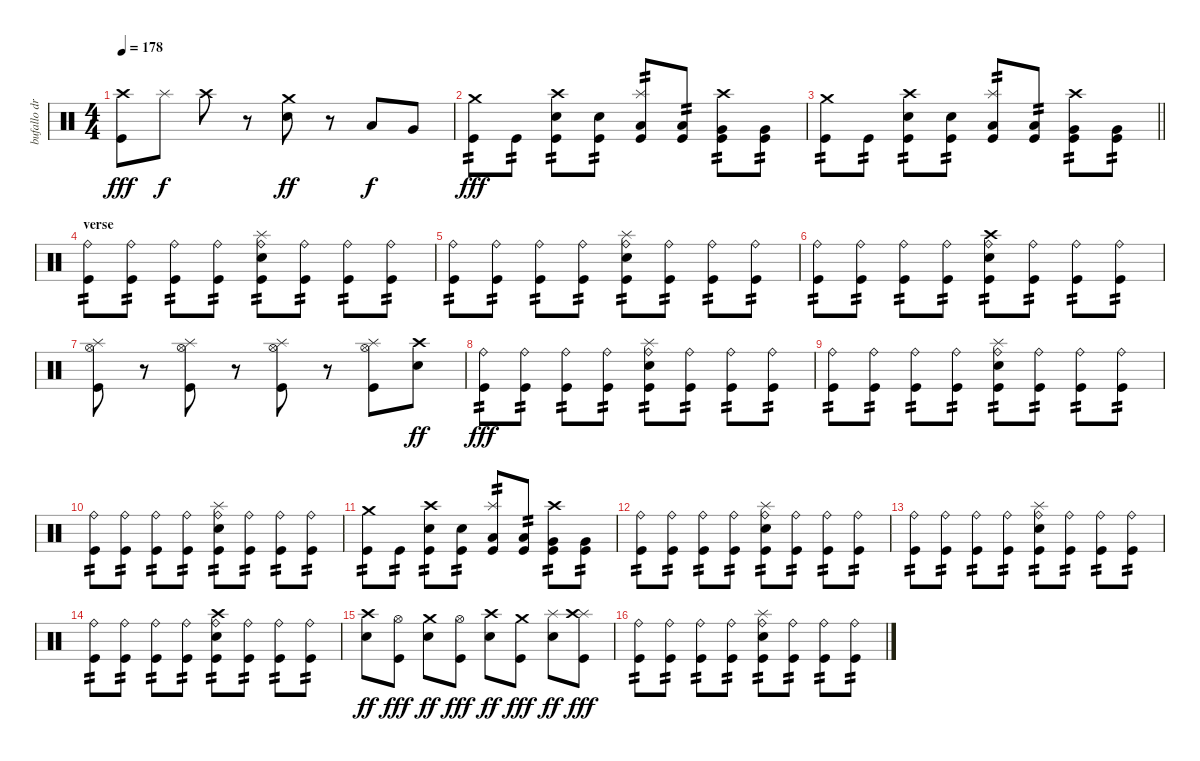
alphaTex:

\track ("bufallo drums" "bufallo dr") {instrument percussion}
\staff {score}
\articulation defaults
\ts (4 4)
\tempo 178
\clef neutral
\ks c
("Crash high (hit)" "Kick (hit)").8{dy fff} "Splash (hit)".8{dy f} "Crash high (hit)".8 r.8 ("Crash medium (hit)" "Electric Snare (hit)").8{dy ff} r.8 "Low Tom (hit)".8{dy f} "Very Low Tom (hit)".8 |
("Crash medium (hit)" "Kick (hit)").8{tp 2 dy fff} "Kick (hit)".8{tp 2} ("Crash high (hit)" "Electric Snare (hit)" "Kick (hit)").8{tp 2} ("Electric Snare (hit)" "Kick (hit)").8{tp 2} ("Splash (hit)" "Low Tom (hit)" "Kick (hit)").8{tp 2} ("Low Tom (hit)" "Kick (hit)").8{tp 2} ("Crash high (hit)" "Very Low Tom (hit)" "Kick (hit)").8{tp 2} ("Very Low Tom (hit)" "Kick (hit)").8{tp 2} |
\barLineRight lightlight
("Crash medium (hit)" "Kick (hit)").8{tp 2} "Kick (hit)".8{tp 2} ("Crash high (hit)" "Electric Snare (hit)" "Kick (hit)").8{tp 2} ("Electric Snare (hit)" "Kick (hit)").8{tp 2} ("Splash (hit)" "Low Tom (hit)" "Kick (hit)").8{tp 2} ("Low Tom (hit)" "Kick (hit)").8{tp 2} ("Crash high (hit)" "Very Low Tom (hit)" "Kick (hit)").8{tp 2} ("Very Low Tom (hit)" "Kick (hit)").8{tp 2} |
\section ("" "verse")
("Ride (bell)" "Kick (hit)").8{tp 2} ("Ride (bell)" "Kick (hit)").8{tp 2} ("Ride (bell)" "Kick (hit)").8{tp 2} ("Ride (bell)" "Kick (hit)").8{tp 2} ("Ride (bell)" "Splash (hit)" "Electric Snare (hit)" "Kick (hit)").8{tp 2} ("Ride (bell)" "Kick (hit)").8{tp 2} ("Ride (bell)" "Kick (hit)").8{tp 2} ("Ride (bell)" "Kick (hit)").8{tp 2} |
("Ride (bell)" "Kick (hit)").8{tp 2} ("Ride (bell)" "Kick (hit)").8{tp 2} ("Ride (bell)" "Kick (hit)").8{tp 2} ("Ride (bell)" "Kick (hit)").8{tp 2} ("Ride (bell)" "Splash (hit)" "Electric Snare (hit)" "Kick (hit)").8{tp 2} ("Ride (bell)" "Kick (hit)").8{tp 2} ("Ride (bell)" "Kick (hit)").8{tp 2} ("Ride (bell)" "Kick (hit)").8{tp 2} |
("Ride (bell)" "Kick (hit)").8{tp 2} ("Ride (bell)" "Kick (hit)").8{tp 2} ("Ride (bell)" "Kick (hit)").8{tp 2} ("Ride (bell)" "Kick (hit)").8{tp 2} ("Ride (bell)" "Crash high (hit)" "Electric Snare (hit)" "Kick (hit)").8{tp 2} ("Ride (bell)" "Kick (hit)").8{tp 2} ("Ride (bell)" "Kick (hit)").8{tp 2} ("Ride (bell)" "Kick (hit)").8{tp 2} |
("Splash (hit)" "Hi-Hat (open)" "Kick (hit)").8 r.8 ("Splash (hit)" "Hi-Hat (open)" "Kick (hit)").8 r.8 ("Splash (hit)" "Hi-Hat (open)" "Kick (hit)").8 r.8 ("Splash (hit)" "Hi-Hat (open)" "Kick (hit)").8 ("Crash high (hit)" "Electric Snare (hit)").8{dy ff} |
("Ride (bell)" "Kick (hit)").8{tp 2 dy fff} ("Ride (bell)" "Kick (hit)").8{tp 2} ("Ride (bell)" "Kick (hit)").8{tp 2} ("Ride (bell)" "Kick (hit)").8{tp 2} ("Ride (bell)" "Splash (hit)" "Electric Snare (hit)" "Kick (hit)").8{tp 2} ("Ride (bell)" "Kick (hit)").8{tp 2} ("Ride (bell)" "Kick (hit)").8{tp 2} ("Ride (bell)" "Kick (hit)").8{tp 2} |
("Ride (bell)" "Kick (hit)").8{tp 2} ("Ride (bell)" "Kick (hit)").8{tp 2} ("Ride (bell)" "Kick (hit)").8{tp 2} ("Ride (bell)" "Kick (hit)").8{tp 2} ("Ride (bell)" "Splash (hit)" "Electric Snare (hit)" "Kick (hit)").8{tp 2} ("Ride (bell)" "Kick (hit)").8{tp 2} ("Ride (bell)" "Kick (hit)").8{tp 2} ("Ride (bell)" "Kick (hit)").8{tp 2} |
("Ride (bell)" "Kick (hit)").8{tp 2} ("Ride (bell)" "Kick (hit)").8{tp 2} ("Ride (bell)" "Kick (hit)").8{tp 2} ("Ride (bell)" "Kick (hit)").8{tp 2} ("Ride (bell)" "Splash (hit)" "Electric Snare (hit)" "Kick (hit)").8{tp 2} ("Ride (bell)" "Kick (hit)").8{tp 2} ("Ride (bell)" "Kick (hit)").8{tp 2} ("Ride (bell)" "Kick (hit)").8{tp 2} |
("Crash medium (hit)" "Kick (hit)").8{tp 2} "Kick (hit)".8{tp 2} ("Crash high (hit)" "Electric Snare (hit)" "Kick (hit)").8{tp 2} ("Electric Snare (hit)" "Kick (hit)").8{tp 2} ("Splash (hit)" "Low Tom (hit)" "Kick (hit)").8{tp 2} ("Low Tom (hit)" "Kick (hit)").8{tp 2} ("Crash high (hit)" "Very Low Tom (hit)" "Kick (hit)").8{tp 2} ("Very Low Tom (hit)" "Kick (hit)").8{tp 2} |
("Ride (bell)" "Kick (hit)").8{tp 2} ("Ride (bell)" "Kick (hit)").8{tp 2} ("Ride (bell)" "Kick (hit)").8{tp 2} ("Ride (bell)" "Kick (hit)").8{tp 2} ("Ride (bell)" "Splash (hit)" "Electric Snare (hit)" "Kick (hit)").8{tp 2} ("Ride (bell)" "Kick (hit)").8{tp 2} ("Ride (bell)" "Kick (hit)").8{tp 2} ("Ride (bell)" "Kick (hit)").8{tp 2} |
("Ride (bell)" "Kick (hit)").8{tp 2} ("Ride (bell)" "Kick (hit)").8{tp 2} ("Ride (bell)" "Kick (hit)").8{tp 2} ("Ride (bell)" "Kick (hit)").8{tp 2} ("Ride (bell)" "Splash (hit)" "Electric Snare (hit)" "Kick (hit)").8{tp 2} ("Ride (bell)" "Kick (hit)").8{tp 2} ("Ride (bell)" "Kick (hit)").8{tp 2} ("Ride (bell)" "Kick (hit)").8{tp 2} |
("Ride (bell)" "Kick (hit)").8{tp 2} ("Ride (bell)" "Kick (hit)").8{tp 2} ("Ride (bell)" "Kick (hit)").8{tp 2} ("Ride (bell)" "Kick (hit)").8{tp 2} ("Ride (bell)" "Crash high (hit)" "Electric Snare (hit)" "Kick (hit)").8{tp 2} ("Ride (bell)" "Kick (hit)").8{tp 2} ("Ride (bell)" "Kick (hit)").8{tp 2} ("Ride (bell)" "Kick (hit)").8{tp 2} |
("Crash high (hit)" "Electric Snare (hit)").8{dy ff} ("Hi-Hat (open)" "Kick (hit)").8{dy fff} ("Crash medium (hit)" "Electric Snare (hit)").8{dy ff} ("Hi-Hat (open)" "Kick (hit)").8{dy fff} ("Crash high (hit)" "Electric Snare (hit)").8{dy ff} ("Crash medium (hit)" "Kick (hit)").8{dy fff} ("Splash (hit)" "Electric Snare (hit)").8{dy ff} ("Splash (hit)" "Crash high (hit)" "Kick (hit)").8{dy fff} |
("Ride (bell)" "Kick (hit)").8{tp 2} ("Ride (bell)" "Kick (hit)").8{tp 2} ("Ride (bell)" "Kick (hit)").8{tp 2} ("Ride (bell)" "Kick (hit)").8{tp 2} ("Ride (bell)" "Splash (hit)" "Electric Snare (hit)" "Kick (hit)").8{tp 2} ("Ride (bell)" "Kick (hit)").8{tp 2} ("Ride (bell)" "Kick (hit)").8{tp 2} ("Ride (bell)" "Kick (hit)").8{tp 2}
